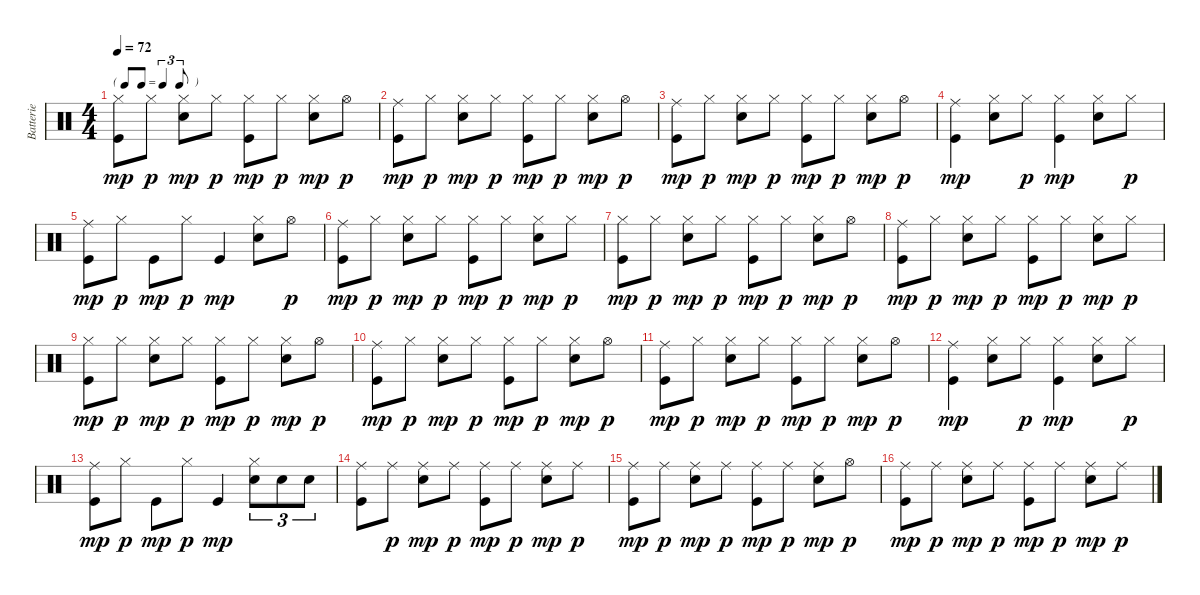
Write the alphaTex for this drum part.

\track ("Batterie" "Batterie") {instrument percussion}
\staff {score}
\articulation defaults
\ts (4 4)
\tf triplet8th
\tempo 72
\clef neutral
\ks c
("Hi-Hat (closed)" "Kick (hit)").8{dy mp} "Hi-Hat (closed)".8{dy p} ("Hi-Hat (closed)" "Snare (hit) 2").8{dy mp} "Hi-Hat (closed)".8{dy p} ("Hi-Hat (closed)" "Kick (hit)").8{dy mp} "Hi-Hat (closed)".8{dy p} ("Hi-Hat (closed)" "Snare (hit) 2").8{dy mp} "Hi-Hat (open)".8{dy p} |
("Ride (middle)" "Kick (hit)").8{dy mp} "Hi-Hat (closed)".8{dy p} ("Hi-Hat (closed)" "Snare (hit) 2").8{dy mp} "Hi-Hat (closed)".8{dy p} ("Hi-Hat (closed)" "Kick (hit)").8{dy mp} "Hi-Hat (closed)".8{dy p} ("Hi-Hat (closed)" "Snare (hit) 2").8{dy mp} "Hi-Hat (open)".8{dy p} |
("Ride (middle)" "Kick (hit)").8{dy mp} "Hi-Hat (closed)".8{dy p} ("Hi-Hat (closed)" "Snare (hit) 2").8{dy mp} "Hi-Hat (closed)".8{dy p} ("Hi-Hat (closed)" "Kick (hit)").8{dy mp} "Hi-Hat (closed)".8{dy p} ("Hi-Hat (closed)" "Snare (hit) 2").8{dy mp} "Hi-Hat (open)".8{dy p} |
("Ride (middle)" "Kick (hit)").4{dy mp} ("Hi-Hat (closed)" "Snare (hit) 2").8 "Hi-Hat (closed)".8{dy p} ("Hi-Hat (closed)" "Kick (hit)").4{dy mp} ("Hi-Hat (closed)" "Snare (hit) 2").8 "Hi-Hat (closed)".8{dy p} |
("Ride (middle)" "Kick (hit)").8{dy mp} "Hi-Hat (closed)".8{dy p} "Kick (hit)".8{dy mp} "Hi-Hat (closed)".8{dy p} "Kick (hit)".4{dy mp} ("Hi-Hat (closed)" "Snare (hit) 2").8 "Hi-Hat (open)".8{dy p} |
("Ride (middle)" "Kick (hit)").8{dy mp} "Hi-Hat (closed)".8{dy p} ("Hi-Hat (closed)" "Snare (hit) 2").8{dy mp} "Hi-Hat (closed)".8{dy p} ("Hi-Hat (closed)" "Kick (hit)").8{dy mp} "Hi-Hat (closed)".8{dy p} ("Hi-Hat (closed)" "Snare (hit) 2").8{dy mp} "Hi-Hat (closed)".8{dy p} |
("Hi-Hat (closed)" "Kick (hit)").8{dy mp} "Hi-Hat (closed)".8{dy p} ("Hi-Hat (closed)" "Snare (hit) 2").8{dy mp} "Hi-Hat (closed)".8{dy p} ("Hi-Hat (closed)" "Kick (hit)").8{dy mp} "Hi-Hat (closed)".8{dy p} ("Hi-Hat (closed)" "Snare (hit) 2").8{dy mp} "Hi-Hat (open)".8{dy p} |
("Ride (middle)" "Kick (hit)").8{dy mp} "Hi-Hat (closed)".8{dy p} ("Hi-Hat (closed)" "Snare (hit) 2").8{dy mp} "Hi-Hat (closed)".8{dy p} ("Hi-Hat (closed)" "Kick (hit)").8{dy mp} "Hi-Hat (closed)".8{dy p} ("Hi-Hat (closed)" "Snare (hit) 2").8{dy mp} "Hi-Hat (closed)".8{dy p} |
("Hi-Hat (closed)" "Kick (hit)").8{dy mp} "Hi-Hat (closed)".8{dy p} ("Hi-Hat (closed)" "Snare (hit) 2").8{dy mp} "Hi-Hat (closed)".8{dy p} ("Hi-Hat (closed)" "Kick (hit)").8{dy mp} "Hi-Hat (closed)".8{dy p} ("Hi-Hat (closed)" "Snare (hit) 2").8{dy mp} "Hi-Hat (open)".8{dy p} |
("Ride (middle)" "Kick (hit)").8{dy mp} "Hi-Hat (closed)".8{dy p} ("Hi-Hat (closed)" "Snare (hit) 2").8{dy mp} "Hi-Hat (closed)".8{dy p} ("Hi-Hat (closed)" "Kick (hit)").8{dy mp} "Hi-Hat (closed)".8{dy p} ("Hi-Hat (closed)" "Snare (hit) 2").8{dy mp} "Hi-Hat (open)".8{dy p} |
("Ride (middle)" "Kick (hit)").8{dy mp} "Hi-Hat (closed)".8{dy p} ("Hi-Hat (closed)" "Snare (hit) 2").8{dy mp} "Hi-Hat (closed)".8{dy p} ("Hi-Hat (closed)" "Kick (hit)").8{dy mp} "Hi-Hat (closed)".8{dy p} ("Hi-Hat (closed)" "Snare (hit) 2").8{dy mp} "Hi-Hat (open)".8{dy p} |
("Ride (middle)" "Kick (hit)").4{dy mp} ("Hi-Hat (closed)" "Snare (hit) 2").8 "Hi-Hat (closed)".8{dy p} ("Hi-Hat (closed)" "Kick (hit)").4{dy mp} ("Hi-Hat (closed)" "Snare (hit) 2").8 "Hi-Hat (closed)".8{dy p} |
("Ride (middle)" "Kick (hit)").8{dy mp} "Hi-Hat (closed)".8{dy p} "Kick (hit)".8{dy mp} "Hi-Hat (closed)".8{dy p} "Kick (hit)".4{dy mp} ("Hi-Hat (closed)" "Snare (hit) 2").8{tu (3 2)} "Snare (hit) 2".8{tu (3 2)} "Snare (hit) 2".8{tu (3 2)} |
("Ride (middle)" "Kick (hit)").8 "Ride (middle)".8{dy p} ("Ride (middle)" "Snare (hit) 2").8{dy mp} "Ride (middle)".8{dy p} ("Ride (middle)" "Kick (hit)").8{dy mp} "Ride (middle)".8{dy p} ("Ride (middle)" "Snare (hit) 2").8{dy mp} "Ride (middle)".8{dy p} |
("Ride (middle)" "Kick (hit)").8{dy mp} "Ride (middle)".8{dy p} ("Ride (middle)" "Snare (hit) 2").8{dy mp} "Ride (middle)".8{dy p} ("Ride (middle)" "Kick (hit)").8{dy mp} "Ride (middle)".8{dy p} ("Ride (middle)" "Snare (hit) 2").8{dy mp} "Hi-Hat (open)".8{dy p} |
("Ride (middle)" "Kick (hit)").8{dy mp} "Ride (middle)".8{dy p} ("Ride (middle)" "Snare (hit) 2").8{dy mp} "Ride (middle)".8{dy p} ("Ride (middle)" "Kick (hit)").8{dy mp} "Ride (middle)".8{dy p} ("Ride (middle)" "Snare (hit) 2").8{dy mp} "Ride (middle)".8{dy p}
